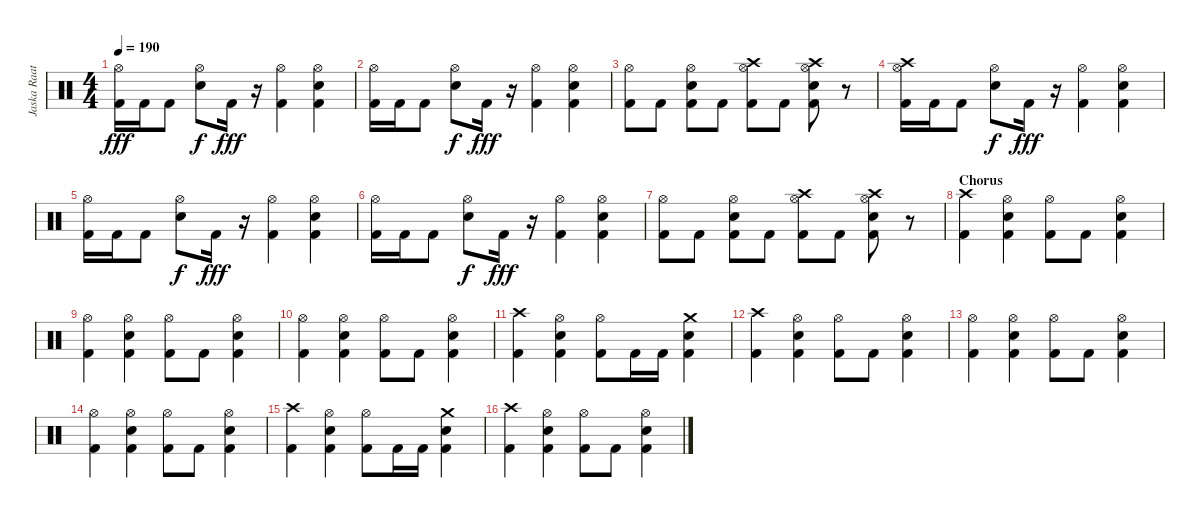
\track ("Jaska Raatikainen (Drums)" "Jaska Raat") {instrument percussion}
\staff {score}
\articulation defaults
\ts (4 4)
\tempo 190
\clef neutral
\ks c
("Hi-Hat (open)" "Kick (hit) 2").16{dy fff} "Kick (hit) 2".16 "Kick (hit) 2".8 ("Hi-Hat (open)" "Electric Snare (hit)").8{dy f} "Kick (hit) 2".16{dy fff} r.16 ("Hi-Hat (open)" "Kick (hit) 2").4 ("Hi-Hat (open)" "Electric Snare (hit)" "Kick (hit) 2").4 |
("Hi-Hat (open)" "Kick (hit) 2").16 "Kick (hit) 2".16 "Kick (hit) 2".8 ("Hi-Hat (open)" "Electric Snare (hit)").8{dy f} "Kick (hit) 2".16{dy fff} r.16 ("Hi-Hat (open)" "Kick (hit) 2").4 ("Hi-Hat (open)" "Electric Snare (hit)" "Kick (hit) 2").4 |
("Hi-Hat (open)" "Kick (hit) 2").8 "Kick (hit) 2".8 ("Hi-Hat (open)" "Electric Snare (hit)" "Kick (hit) 2").8 "Kick (hit) 2".8 ("Hi-Hat (open)" "Crash high (hit)" "Kick (hit) 2").8 "Kick (hit) 2".8 ("Hi-Hat (open)" "Crash high (hit)" "Electric Snare (hit)" "Kick (hit) 2").8 r.8 |
("Hi-Hat (open)" "Crash high (hit)" "Kick (hit) 2").16 "Kick (hit) 2".16 "Kick (hit) 2".8 ("Hi-Hat (open)" "Electric Snare (hit)").8{dy f} "Kick (hit) 2".16{dy fff} r.16 ("Hi-Hat (open)" "Kick (hit) 2").4 ("Hi-Hat (open)" "Electric Snare (hit)" "Kick (hit) 2").4 |
("Hi-Hat (open)" "Kick (hit) 2").16 "Kick (hit) 2".16 "Kick (hit) 2".8 ("Hi-Hat (open)" "Electric Snare (hit)").8{dy f} "Kick (hit) 2".16{dy fff} r.16 ("Hi-Hat (open)" "Kick (hit) 2").4 ("Hi-Hat (open)" "Electric Snare (hit)" "Kick (hit) 2").4 |
("Hi-Hat (open)" "Kick (hit) 2").16 "Kick (hit) 2".16 "Kick (hit) 2".8 ("Hi-Hat (open)" "Electric Snare (hit)").8{dy f} "Kick (hit) 2".16{dy fff} r.16 ("Hi-Hat (open)" "Kick (hit) 2").4 ("Hi-Hat (open)" "Electric Snare (hit)" "Kick (hit) 2").4 |
("Hi-Hat (open)" "Kick (hit) 2").8 "Kick (hit) 2".8 ("Hi-Hat (open)" "Electric Snare (hit)" "Kick (hit) 2").8 "Kick (hit) 2".8 ("Hi-Hat (open)" "Crash high (hit)" "Kick (hit) 2").8 "Kick (hit) 2".8 ("Hi-Hat (open)" "Crash high (hit)" "Electric Snare (hit)" "Kick (hit) 2").8 r.8 |
\section ("" "Chorus")
("Crash high (hit)" "Kick (hit) 2").4 ("Hi-Hat (open)" "Electric Snare (hit)" "Kick (hit) 2").4 ("Hi-Hat (open)" "Kick (hit) 2").8 "Kick (hit) 2".8 ("Hi-Hat (open)" "Electric Snare (hit)" "Kick (hit) 2").4 |
("Hi-Hat (open)" "Kick (hit) 2").4 ("Hi-Hat (open)" "Electric Snare (hit)" "Kick (hit) 2").4 ("Hi-Hat (open)" "Kick (hit) 2").8 "Kick (hit) 2".8 ("Hi-Hat (open)" "Electric Snare (hit)" "Kick (hit) 2").4 |
("Hi-Hat (open)" "Kick (hit) 2").4 ("Hi-Hat (open)" "Electric Snare (hit)" "Kick (hit) 2").4 ("Hi-Hat (open)" "Kick (hit) 2").8 "Kick (hit) 2".8 ("Hi-Hat (open)" "Electric Snare (hit)" "Kick (hit) 2").4 |
("Crash high (hit)" "Kick (hit) 2").4 ("Hi-Hat (open)" "Electric Snare (hit)" "Kick (hit) 2").4 ("Hi-Hat (open)" "Kick (hit) 2").8 "Kick (hit) 2".16 "Kick (hit) 2".16 ("Crash medium (hit)" "Electric Snare (hit)" "Kick (hit) 2").4 |
("Crash high (hit)" "Kick (hit) 2").4 ("Hi-Hat (open)" "Electric Snare (hit)" "Kick (hit) 2").4 ("Hi-Hat (open)" "Kick (hit) 2").8 "Kick (hit) 2".8 ("Hi-Hat (open)" "Electric Snare (hit)" "Kick (hit) 2").4 |
("Hi-Hat (open)" "Kick (hit) 2").4 ("Hi-Hat (open)" "Electric Snare (hit)" "Kick (hit) 2").4 ("Hi-Hat (open)" "Kick (hit) 2").8 "Kick (hit) 2".8 ("Hi-Hat (open)" "Electric Snare (hit)" "Kick (hit) 2").4 |
("Hi-Hat (open)" "Kick (hit) 2").4 ("Hi-Hat (open)" "Electric Snare (hit)" "Kick (hit) 2").4 ("Hi-Hat (open)" "Kick (hit) 2").8 "Kick (hit) 2".8 ("Hi-Hat (open)" "Electric Snare (hit)" "Kick (hit) 2").4 |
("Crash high (hit)" "Kick (hit) 2").4 ("Hi-Hat (open)" "Electric Snare (hit)" "Kick (hit) 2").4 ("Hi-Hat (open)" "Kick (hit) 2").8 "Kick (hit) 2".16 "Kick (hit) 2".16 ("Crash medium (hit)" "Electric Snare (hit)" "Kick (hit) 2").4 |
("Crash high (hit)" "Kick (hit) 2").4 ("Hi-Hat (open)" "Electric Snare (hit)" "Kick (hit) 2").4 ("Hi-Hat (open)" "Kick (hit) 2").8 "Kick (hit) 2".8 ("Hi-Hat (open)" "Electric Snare (hit)" "Kick (hit) 2").4
